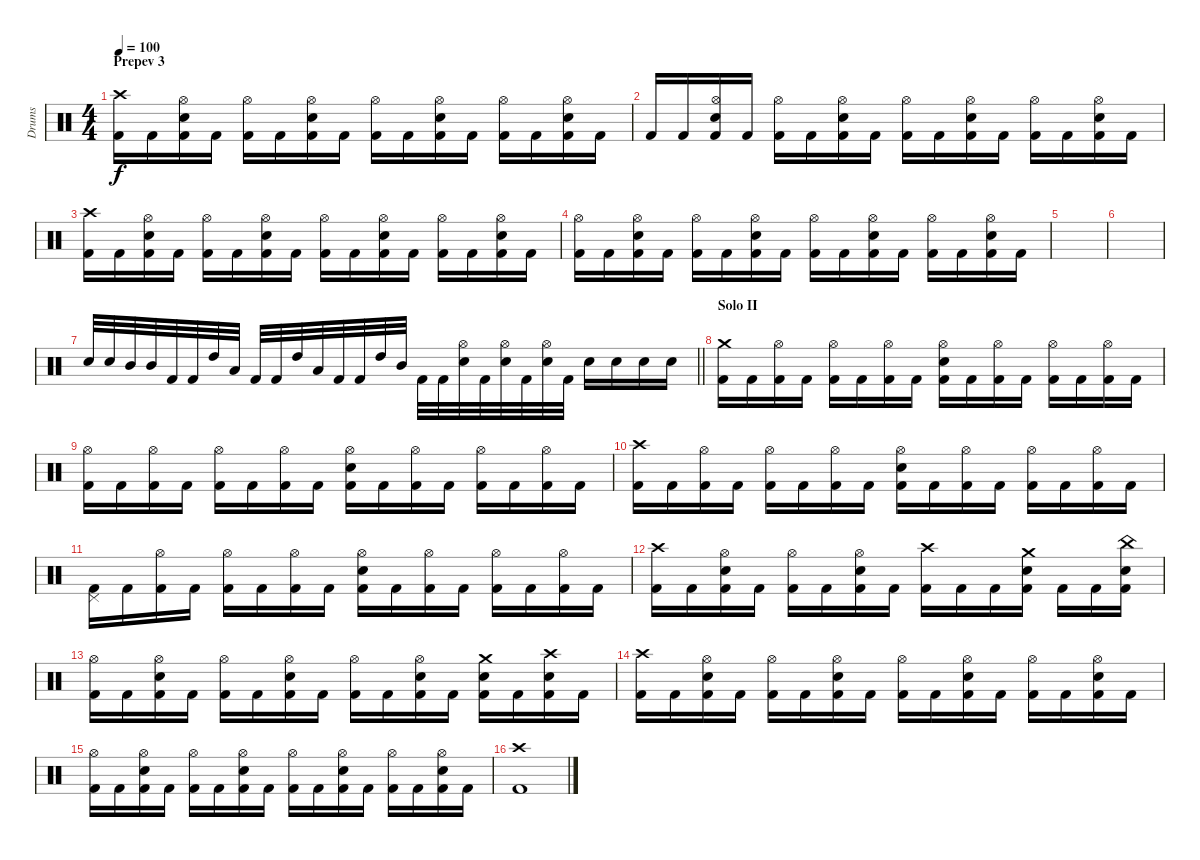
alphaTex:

\track ("Drums" "Drums") {instrument percussion}
\staff {score}
\articulation defaults
\ts (4 4)
\section ("" "Prepev 3")
\tempo 100
\clef neutral
\ks c
("Crash high (hit)" "Kick (hit) 2").16{dy f} "Kick (hit) 2".16 ("Hi-Hat (open)" "Snare (hit) 2" "Kick (hit) 2").16 "Kick (hit) 2".16 ("Hi-Hat (open)" "Kick (hit) 2").16 "Kick (hit) 2".16 ("Hi-Hat (open)" "Snare (hit) 2" "Kick (hit) 2").16 "Kick (hit) 2".16 ("Hi-Hat (open)" "Kick (hit) 2").16 "Kick (hit) 2".16 ("Hi-Hat (open)" "Snare (hit) 2" "Kick (hit) 2").16 "Kick (hit) 2".16 ("Hi-Hat (open)" "Kick (hit) 2").16 "Kick (hit) 2".16 ("Hi-Hat (open)" "Snare (hit) 2" "Kick (hit) 2").16 "Kick (hit) 2".16 |
"Kick (hit) 2".16 "Kick (hit) 2".16 ("Hi-Hat (open)" "Snare (hit) 2" "Kick (hit) 2").16 "Kick (hit) 2".16 ("Hi-Hat (open)" "Kick (hit) 2").16 "Kick (hit) 2".16 ("Hi-Hat (open)" "Snare (hit) 2" "Kick (hit) 2").16 "Kick (hit) 2".16 ("Hi-Hat (open)" "Kick (hit) 2").16 "Kick (hit) 2".16 ("Hi-Hat (open)" "Snare (hit) 2" "Kick (hit) 2").16 "Kick (hit) 2".16 ("Hi-Hat (open)" "Kick (hit) 2").16 "Kick (hit) 2".16 ("Hi-Hat (open)" "Snare (hit) 2" "Kick (hit) 2").16 "Kick (hit) 2".16 |
("Crash high (hit)" "Kick (hit) 2").16 "Kick (hit) 2".16 ("Hi-Hat (open)" "Snare (hit) 2" "Kick (hit) 2").16 "Kick (hit) 2".16 ("Hi-Hat (open)" "Kick (hit) 2").16 "Kick (hit) 2".16 ("Hi-Hat (open)" "Snare (hit) 2" "Kick (hit) 2").16 "Kick (hit) 2".16 ("Hi-Hat (open)" "Kick (hit) 2").16 "Kick (hit) 2".16 ("Hi-Hat (open)" "Snare (hit) 2" "Kick (hit) 2").16 "Kick (hit) 2".16 ("Hi-Hat (open)" "Kick (hit) 2").16 "Kick (hit) 2".16 ("Hi-Hat (open)" "Snare (hit) 2" "Kick (hit) 2").16 "Kick (hit) 2".16 |
("Hi-Hat (open)" "Kick (hit) 2").16 "Kick (hit) 2".16 ("Hi-Hat (open)" "Snare (hit) 2" "Kick (hit) 2").16 "Kick (hit) 2".16 ("Hi-Hat (open)" "Kick (hit) 2").16 "Kick (hit) 2".16 ("Hi-Hat (open)" "Snare (hit) 2" "Kick (hit) 2").16 "Kick (hit) 2".16 ("Hi-Hat (open)" "Kick (hit) 2").16 "Kick (hit) 2".16 ("Hi-Hat (open)" "Snare (hit) 2" "Kick (hit) 2").16 "Kick (hit) 2".16 ("Hi-Hat (open)" "Kick (hit) 2").16 "Kick (hit) 2".16 ("Hi-Hat (open)" "Snare (hit) 2" "Kick (hit) 2").16 "Kick (hit) 2".16 |
|
|
\barLineRight lightlight "Snare (hit) 2".32 "Snare (hit) 2".32 "Mid Tom (hit)".32 "Mid Tom (hit)".32 "Kick (hit) 2".32 "Kick (hit) 2".32 "High Tom (hit)".32 "Low Tom (hit)".32 "Kick (hit) 2".32 "Kick (hit) 2".32 "High Tom (hit)".32 "Low Tom (hit)".32 "Kick (hit) 2".32 "Kick (hit) 2".32 "High Tom (hit)".32 "Mid Tom (hit)".32 "Kick (hit) 2".32 "Kick (hit) 2".32
("Hi-Hat (open)" "Snare (hit) 2").32 "Kick (hit) 2".32 ("Hi-Hat (open)" "Snare (hit) 2").32 "Kick (hit) 2".32 ("Hi-Hat (open)" "Snare (hit) 2").32 "Kick (hit) 2".32 "Snare (hit) 2".16 "Snare (hit) 2".16 "Snare (hit) 2".16 "Snare (hit) 2".16 |
\section ("" "Solo II")
("Crash medium (hit)" "Kick (hit) 2").16 "Kick (hit) 2".16 ("Hi-Hat (open)" "Kick (hit) 2").16 "Kick (hit) 2".16 ("Hi-Hat (open)" "Kick (hit) 2").16 "Kick (hit) 2".16 ("Hi-Hat (open)" "Kick (hit) 2").16 "Kick (hit) 2".16 ("Hi-Hat (open)" "Snare (hit) 2" "Kick (hit) 2").16 "Kick (hit) 2".16 ("Hi-Hat (open)" "Kick (hit) 2").16 "Kick (hit) 2".16 ("Hi-Hat (open)" "Kick (hit) 2").16 "Kick (hit) 2".16 ("Hi-Hat (open)" "Kick (hit) 2").16 "Kick (hit) 2".16 |
("Hi-Hat (open)" "Kick (hit) 2").16 "Kick (hit) 2".16 ("Hi-Hat (open)" "Kick (hit) 2").16 "Kick (hit) 2".16 ("Hi-Hat (open)" "Kick (hit) 2").16 "Kick (hit) 2".16 ("Hi-Hat (open)" "Kick (hit) 2").16 "Kick (hit) 2".16 ("Hi-Hat (open)" "Snare (hit) 2" "Kick (hit) 2").16 "Kick (hit) 2".16 ("Hi-Hat (open)" "Kick (hit) 2").16 "Kick (hit) 2".16 ("Hi-Hat (open)" "Kick (hit) 2").16 "Kick (hit) 2".16 ("Hi-Hat (open)" "Kick (hit) 2").16 "Kick (hit) 2".16 |
("Crash high (hit)" "Kick (hit) 2").16 "Kick (hit) 2".16 ("Hi-Hat (open)" "Kick (hit) 2").16 "Kick (hit) 2".16 ("Hi-Hat (open)" "Kick (hit) 2").16 "Kick (hit) 2".16 ("Hi-Hat (open)" "Kick (hit) 2").16 "Kick (hit) 2".16 ("Hi-Hat (open)" "Snare (hit) 2" "Kick (hit) 2").16 "Kick (hit) 2".16 ("Hi-Hat (open)" "Kick (hit) 2").16 "Kick (hit) 2".16 ("Hi-Hat (open)" "Kick (hit) 2").16 "Kick (hit) 2".16 ("Hi-Hat (open)" "Kick (hit) 2").16 "Kick (hit) 2".16 |
("Pedal Hi-Hat (hit)" "Kick (hit) 2").16 "Kick (hit) 2".16 ("Hi-Hat (open)" "Kick (hit) 2").16 "Kick (hit) 2".16 ("Hi-Hat (open)" "Kick (hit) 2").16 "Kick (hit) 2".16 ("Hi-Hat (open)" "Kick (hit) 2").16 "Kick (hit) 2".16 ("Hi-Hat (open)" "Snare (hit) 2" "Kick (hit) 2").16 "Kick (hit) 2".16 ("Hi-Hat (open)" "Kick (hit) 2").16 "Kick (hit) 2".16 ("Hi-Hat (open)" "Kick (hit) 2").16 "Kick (hit) 2".16 ("Hi-Hat (open)" "Kick (hit) 2").16 "Kick (hit) 2".16 |
("Crash high (hit)" "Kick (hit) 2").16 "Kick (hit) 2".16 ("Hi-Hat (open)" "Snare (hit) 2" "Kick (hit) 2").16 "Kick (hit) 2".16 ("Hi-Hat (open)" "Kick (hit) 2").16 "Kick (hit) 2".16 ("Hi-Hat (open)" "Snare (hit) 2" "Kick (hit) 2").16 "Kick (hit) 2".16 ("Crash high (hit)" "Kick (hit) 2").16 "Kick (hit) 2".16 "Kick (hit) 2".16 ("Snare (hit) 2" "Crash medium (hit)" "Kick (hit) 2").16 "Kick (hit) 2".16 "Kick (hit) 2".16 ("Snare (hit) 2" "China (hit)" "Kick (hit) 2").16 |
("Hi-Hat (open)" "Kick (hit) 2").16 "Kick (hit) 2".16 ("Hi-Hat (open)" "Snare (hit) 2" "Kick (hit) 2").16 "Kick (hit) 2".16 ("Hi-Hat (open)" "Kick (hit) 2").16 "Kick (hit) 2".16 ("Hi-Hat (open)" "Snare (hit) 2" "Kick (hit) 2").16 "Kick (hit) 2".16 ("Hi-Hat (open)" "Kick (hit) 2").16 "Kick (hit) 2".16 ("Snare (hit) 2" "Hi-Hat (open)" "Kick (hit) 2").16 "Kick (hit) 2".16 ("Snare (hit) 2" "Crash medium (hit)" "Kick (hit) 2").16 "Kick (hit) 2".16 ("Snare (hit) 2" "Crash high (hit)" "Kick (hit) 2").16 "Kick (hit) 2".16 |
("Crash high (hit)" "Kick (hit) 2").16 "Kick (hit) 2".16 ("Hi-Hat (open)" "Snare (hit) 2" "Kick (hit) 2").16 "Kick (hit) 2".16 ("Hi-Hat (open)" "Kick (hit) 2").16 "Kick (hit) 2".16 ("Hi-Hat (open)" "Snare (hit) 2" "Kick (hit) 2").16 "Kick (hit) 2".16 ("Hi-Hat (open)" "Kick (hit) 2").16 "Kick (hit) 2".16 ("Hi-Hat (open)" "Snare (hit) 2" "Kick (hit) 2").16 "Kick (hit) 2".16 ("Hi-Hat (open)" "Kick (hit) 2").16 "Kick (hit) 2".16 ("Hi-Hat (open)" "Snare (hit) 2" "Kick (hit) 2").16 "Kick (hit) 2".16 |
("Hi-Hat (open)" "Kick (hit) 2").16 "Kick (hit) 2".16 ("Hi-Hat (open)" "Snare (hit) 2" "Kick (hit) 2").16 "Kick (hit) 2".16 ("Hi-Hat (open)" "Kick (hit) 2").16 "Kick (hit) 2".16 ("Hi-Hat (open)" "Snare (hit) 2" "Kick (hit) 2").16 "Kick (hit) 2".16 ("Hi-Hat (open)" "Kick (hit) 2").16 "Kick (hit) 2".16 ("Hi-Hat (open)" "Snare (hit) 2" "Kick (hit) 2").16 "Kick (hit) 2".16 ("Hi-Hat (open)" "Kick (hit) 2").16 "Kick (hit) 2".16 ("Hi-Hat (open)" "Snare (hit) 2" "Kick (hit) 2").16 "Kick (hit) 2".16 |
("Crash high (hit)" "Kick (hit) 2").1
